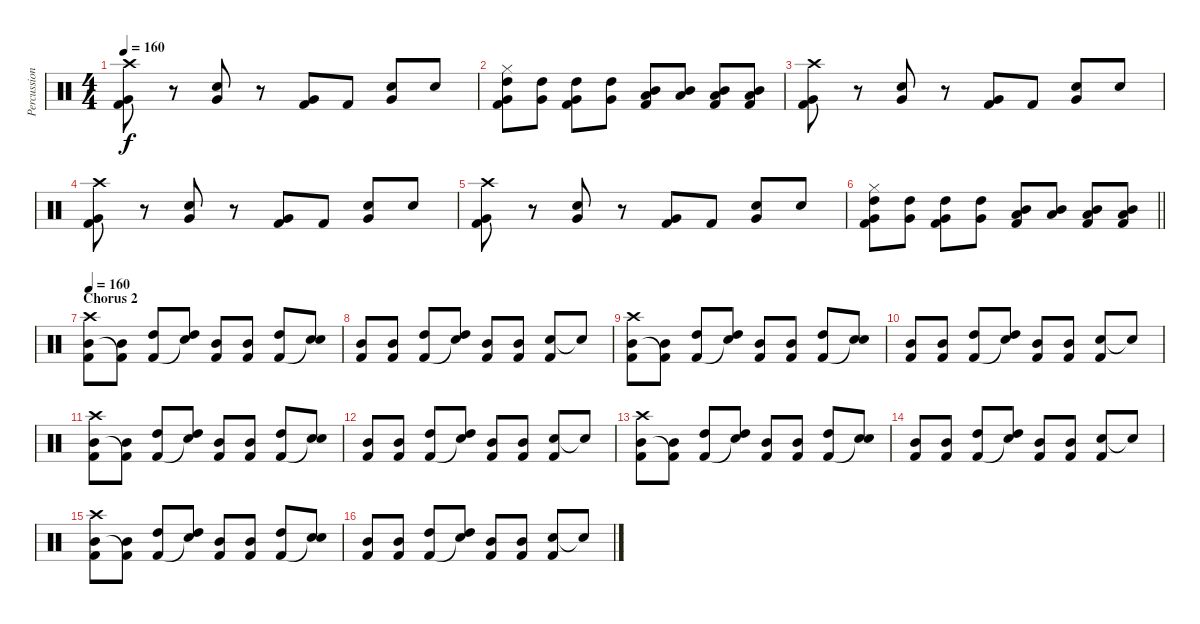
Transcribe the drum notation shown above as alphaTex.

\track ("Percussion" "Percussion") {instrument percussion}
\staff {score}
\articulation defaults
\ts (4 4)
\tempo 160
\clef neutral
\ks c
("Crash high (hit)" "Very Low Tom (hit)" "Kick (hit) 2").8{dy f} r.8 ("Snare (hit) 2" "Very Low Tom (hit)").8 r.8 ("Very Low Tom (hit)" "Kick (hit) 2").8 "Kick (hit) 2".8 ("Snare (hit) 2" "Very Low Tom (hit)").8 "Snare (hit) 2".8 |
("Hi-Hat (closed)" "High Tom (hit)" "Very Low Tom (hit)" "Kick (hit) 2").8 ("High Tom (hit)" "Very Low Tom (hit)").8 ("High Tom (hit)" "Very Low Tom (hit)" "Kick (hit) 2").8 ("High Tom (hit)" "Very Low Tom (hit)").8 ("Mid Tom (hit)" "Low Floor Tom (hit)" "Kick (hit) 2").8 ("Mid Tom (hit)" "Low Floor Tom (hit)").8 ("Mid Tom (hit)" "Low Floor Tom (hit)" "Kick (hit) 2").8 ("Mid Tom (hit)" "Low Floor Tom (hit)" "Kick (hit) 2").8 |
("Crash high (hit)" "Very Low Tom (hit)" "Kick (hit) 2").8 r.8 ("Snare (hit) 2" "Very Low Tom (hit)").8 r.8 ("Very Low Tom (hit)" "Kick (hit) 2").8 "Kick (hit) 2".8 ("Snare (hit) 2" "Very Low Tom (hit)").8 "Snare (hit) 2".8 |
("Crash high (hit)" "Very Low Tom (hit)" "Kick (hit) 2").8 r.8 ("Snare (hit) 2" "Very Low Tom (hit)").8 r.8 ("Very Low Tom (hit)" "Kick (hit) 2").8 "Kick (hit) 2".8 ("Snare (hit) 2" "Very Low Tom (hit)").8 "Snare (hit) 2".8 |
("Crash high (hit)" "Very Low Tom (hit)" "Kick (hit) 2").8 r.8 ("Snare (hit) 2" "Very Low Tom (hit)").8 r.8 ("Very Low Tom (hit)" "Kick (hit) 2").8 "Kick (hit) 2".8 ("Snare (hit) 2" "Very Low Tom (hit)").8 "Snare (hit) 2".8 |
\barLineRight lightlight
("Hi-Hat (closed)" "High Tom (hit)" "Very Low Tom (hit)" "Kick (hit) 2").8 ("High Tom (hit)" "Very Low Tom (hit)").8 ("High Tom (hit)" "Very Low Tom (hit)" "Kick (hit) 2").8 ("High Tom (hit)" "Very Low Tom (hit)").8 ("Mid Tom (hit)" "Low Floor Tom (hit)" "Kick (hit) 2").8 ("Mid Tom (hit)" "Low Floor Tom (hit)").8 ("Mid Tom (hit)" "Low Floor Tom (hit)" "Kick (hit) 2").8 ("Mid Tom (hit)" "Low Floor Tom (hit)" "Kick (hit) 2").8 |
\section ("" "Chorus 2")
\tempo 160
("Crash high (hit)" "Mid Tom (hit)" "Kick (hit) 2").8 ("Mid Tom (hit)" "Kick (hit) 2"{t}).8 ("High Tom (hit)" "Kick (hit) 2").8 ("High Tom (hit)" "Snare (hit)"{t}).8 ("Mid Tom (hit)" "Kick (hit) 2").8 ("Mid Tom (hit)" "Kick (hit) 2").8 ("High Tom (hit)" "Kick (hit) 2").8 ("Snare (hit) 2" "Snare (hit)"{t}).8 |
("Mid Tom (hit)" "Kick (hit) 2").8 ("Mid Tom (hit)" "Kick (hit) 2").8 ("High Tom (hit)" "Kick (hit) 2").8 ("High Tom (hit)" "Snare (hit)"{t}).8 ("Mid Tom (hit)" "Kick (hit) 2").8 ("Mid Tom (hit)" "Kick (hit) 2").8 ("Snare (hit) 2" "Kick (hit) 2").8 "Snare (hit)"{t}.8 |
("Crash high (hit)" "Mid Tom (hit)" "Kick (hit) 2").8 ("Mid Tom (hit)" "Kick (hit) 2"{t}).8 ("High Tom (hit)" "Kick (hit) 2").8 ("High Tom (hit)" "Snare (hit)"{t}).8 ("Mid Tom (hit)" "Kick (hit) 2").8 ("Mid Tom (hit)" "Kick (hit) 2").8 ("High Tom (hit)" "Kick (hit) 2").8 ("Snare (hit) 2" "Snare (hit)"{t}).8 |
("Mid Tom (hit)" "Kick (hit) 2").8 ("Mid Tom (hit)" "Kick (hit) 2").8 ("High Tom (hit)" "Kick (hit) 2").8 ("High Tom (hit)" "Snare (hit)"{t}).8 ("Mid Tom (hit)" "Kick (hit) 2").8 ("Mid Tom (hit)" "Kick (hit) 2").8 ("Snare (hit) 2" "Kick (hit) 2").8 "Snare (hit)"{t}.8 |
("Crash high (hit)" "Mid Tom (hit)" "Kick (hit) 2").8 ("Mid Tom (hit)" "Kick (hit) 2"{t}).8 ("High Tom (hit)" "Kick (hit) 2").8 ("High Tom (hit)" "Snare (hit)"{t}).8 ("Mid Tom (hit)" "Kick (hit) 2").8 ("Mid Tom (hit)" "Kick (hit) 2").8 ("High Tom (hit)" "Kick (hit) 2").8 ("Snare (hit) 2" "Snare (hit)"{t}).8 |
("Mid Tom (hit)" "Kick (hit) 2").8 ("Mid Tom (hit)" "Kick (hit) 2").8 ("High Tom (hit)" "Kick (hit) 2").8 ("High Tom (hit)" "Snare (hit)"{t}).8 ("Mid Tom (hit)" "Kick (hit) 2").8 ("Mid Tom (hit)" "Kick (hit) 2").8 ("Snare (hit) 2" "Kick (hit) 2").8 "Snare (hit)"{t}.8 |
("Crash high (hit)" "Mid Tom (hit)" "Kick (hit) 2").8 ("Mid Tom (hit)" "Kick (hit) 2"{t}).8 ("High Tom (hit)" "Kick (hit) 2").8 ("High Tom (hit)" "Snare (hit)"{t}).8 ("Mid Tom (hit)" "Kick (hit) 2").8 ("Mid Tom (hit)" "Kick (hit) 2").8 ("High Tom (hit)" "Kick (hit) 2").8 ("Snare (hit) 2" "Snare (hit)"{t}).8 |
("Mid Tom (hit)" "Kick (hit) 2").8 ("Mid Tom (hit)" "Kick (hit) 2").8 ("High Tom (hit)" "Kick (hit) 2").8 ("High Tom (hit)" "Snare (hit)"{t}).8 ("Mid Tom (hit)" "Kick (hit) 2").8 ("Mid Tom (hit)" "Kick (hit) 2").8 ("Snare (hit) 2" "Kick (hit) 2").8 "Snare (hit)"{t}.8 |
("Crash high (hit)" "Mid Tom (hit)" "Kick (hit) 2").8 ("Mid Tom (hit)" "Kick (hit) 2"{t}).8 ("High Tom (hit)" "Kick (hit) 2").8 ("High Tom (hit)" "Snare (hit)"{t}).8 ("Mid Tom (hit)" "Kick (hit) 2").8 ("Mid Tom (hit)" "Kick (hit) 2").8 ("High Tom (hit)" "Kick (hit) 2").8 ("Snare (hit) 2" "Snare (hit)"{t}).8 |
("Mid Tom (hit)" "Kick (hit) 2").8 ("Mid Tom (hit)" "Kick (hit) 2").8 ("High Tom (hit)" "Kick (hit) 2").8 ("High Tom (hit)" "Snare (hit)"{t}).8 ("Mid Tom (hit)" "Kick (hit) 2").8 ("Mid Tom (hit)" "Kick (hit) 2").8 ("Snare (hit) 2" "Kick (hit) 2").8 "Snare (hit)"{t}.8
